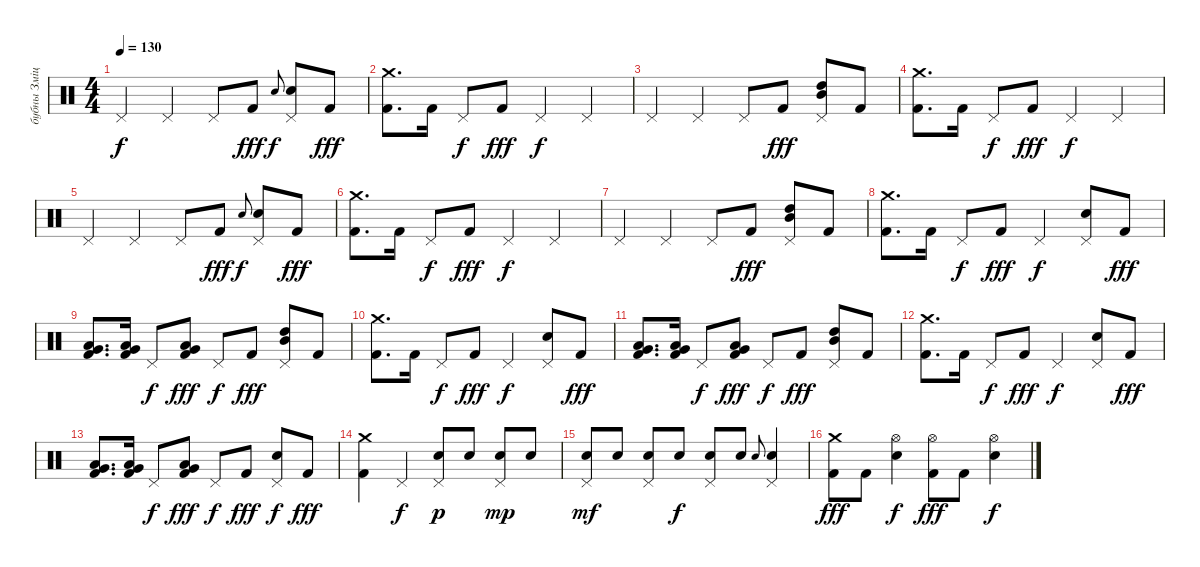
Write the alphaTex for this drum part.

\track ("бубны Змiцер" "бубны Змiц") {instrument percussion}
\staff {score}
\articulation defaults
\ts (4 4)
\tempo 130
\clef neutral
\ks c "Pedal Hi-Hat (hit)".4{dy f} "Pedal Hi-Hat (hit)".4 "Pedal Hi-Hat (hit)".8 "Kick (hit) 2".8{dy fff} "Electric Snare (hit)".8{gr onbeat dy f}
("Electric Snare (hit)" "Pedal Hi-Hat (hit)").8 "Kick (hit) 2".8{dy fff} |
("Crash medium (hit)" "Kick (hit) 2").8{d} "Kick (hit) 2".16 "Pedal Hi-Hat (hit)".8{dy f} "Kick (hit) 2".8{dy fff} "Pedal Hi-Hat (hit)".4{dy f} "Pedal Hi-Hat (hit)".4 |
"Pedal Hi-Hat (hit)".4 "Pedal Hi-Hat (hit)".4 "Pedal Hi-Hat (hit)".8 "Kick (hit) 2".8{dy fff} ("Mid Tom (hit)" "High Tom (hit)" "Pedal Hi-Hat (hit)").8 "Kick (hit) 2".8 |
("Crash medium (hit)" "Kick (hit) 2").8{d} "Kick (hit) 2".16 "Pedal Hi-Hat (hit)".8{dy f} "Kick (hit) 2".8{dy fff} "Pedal Hi-Hat (hit)".4{dy f} "Pedal Hi-Hat (hit)".4 |
"Pedal Hi-Hat (hit)".4 "Pedal Hi-Hat (hit)".4 "Pedal Hi-Hat (hit)".8 "Kick (hit) 2".8{dy fff} "Electric Snare (hit)".8{gr onbeat dy f} ("Electric Snare (hit)" "Pedal Hi-Hat (hit)").8 "Kick (hit) 2".8{dy fff} |
("Crash medium (hit)" "Kick (hit) 2").8{d} "Kick (hit) 2".16 "Pedal Hi-Hat (hit)".8{dy f} "Kick (hit) 2".8{dy fff} "Pedal Hi-Hat (hit)".4{dy f} "Pedal Hi-Hat (hit)".4 |
"Pedal Hi-Hat (hit)".4 "Pedal Hi-Hat (hit)".4 "Pedal Hi-Hat (hit)".8 "Kick (hit) 2".8{dy fff} ("Mid Tom (hit)" "High Tom (hit)" "Pedal Hi-Hat (hit)").8 "Kick (hit) 2".8 |
("Crash medium (hit)" "Kick (hit) 2").8{d} "Kick (hit) 2".16 "Pedal Hi-Hat (hit)".8{dy f} "Kick (hit) 2".8{dy fff} "Pedal Hi-Hat (hit)".4{dy f} ("Electric Snare (hit)" "Pedal Hi-Hat (hit)").8 "Kick (hit) 2".8{dy fff} |
("Very Low Tom (hit)" "Low Tom (hit)" "Kick (hit) 2").8{d} ("Very Low Tom (hit)" "Low Tom (hit)" "Kick (hit) 2").16 "Pedal Hi-Hat (hit)".8{dy f} ("Very Low Tom (hit)" "Low Tom (hit)" "Kick (hit) 2").8{dy fff} "Pedal Hi-Hat (hit)".8{dy f} "Kick (hit) 2".8{dy fff} ("Mid Tom (hit)" "High Tom (hit)" "Pedal Hi-Hat (hit)").8 "Kick (hit) 2".8 |
("Crash medium (hit)" "Kick (hit) 2").8{d} "Kick (hit) 2".16 "Pedal Hi-Hat (hit)".8{dy f} "Kick (hit) 2".8{dy fff} "Pedal Hi-Hat (hit)".4{dy f} ("Electric Snare (hit)" "Pedal Hi-Hat (hit)").8 "Kick (hit) 2".8{dy fff} |
("Very Low Tom (hit)" "Low Tom (hit)" "Kick (hit) 2").8{d} ("Very Low Tom (hit)" "Low Tom (hit)" "Kick (hit) 2").16 "Pedal Hi-Hat (hit)".8{dy f} ("Very Low Tom (hit)" "Low Tom (hit)" "Kick (hit) 2").8{dy fff} "Pedal Hi-Hat (hit)".8{dy f} "Kick (hit) 2".8{dy fff} ("Mid Tom (hit)" "High Tom (hit)" "Pedal Hi-Hat (hit)").8 "Kick (hit) 2".8 |
("Crash medium (hit)" "Kick (hit) 2").8{d} "Kick (hit) 2".16 "Pedal Hi-Hat (hit)".8{dy f} "Kick (hit) 2".8{dy fff} "Pedal Hi-Hat (hit)".4{dy f} ("Electric Snare (hit)" "Pedal Hi-Hat (hit)").8 "Kick (hit) 2".8{dy fff} |
("Very Low Tom (hit)" "Low Tom (hit)" "Kick (hit) 2").8{d} ("Very Low Tom (hit)" "Low Tom (hit)" "Kick (hit) 2").16 "Pedal Hi-Hat (hit)".8{dy f} ("Very Low Tom (hit)" "Low Tom (hit)" "Kick (hit) 2").8{dy fff} "Pedal Hi-Hat (hit)".8{dy f} "Kick (hit) 2".8{dy fff} ("Electric Snare (hit)" "Pedal Hi-Hat (hit)").8{dy f} "Kick (hit) 2".8{dy fff} |
("Crash medium (hit)" "Kick (hit) 2").4 "Pedal Hi-Hat (hit)".4{dy f} ("Electric Snare (hit)" "Pedal Hi-Hat (hit)").8{dy p} "Electric Snare (hit)".8 ("Electric Snare (hit)" "Pedal Hi-Hat (hit)").8{dy mp} "Electric Snare (hit)".8 |
("Electric Snare (hit)" "Pedal Hi-Hat (hit)").8{dy mf} "Electric Snare (hit)".8 ("Electric Snare (hit)" "Pedal Hi-Hat (hit)").8 "Electric Snare (hit)".8{dy f} ("Electric Snare (hit)" "Pedal Hi-Hat (hit)").8 "Electric Snare (hit)".8 "Electric Snare (hit)".8{gr onbeat} ("Electric Snare (hit)" "Pedal Hi-Hat (hit)").4 |
("Crash medium (hit)" "Kick (hit) 2").8{dy fff} "Kick (hit) 2".8 ("Hi-Hat (open)" "Electric Snare (hit)").4{dy f} ("Hi-Hat (open)" "Kick (hit) 2").8{dy fff} "Kick (hit) 2".8 ("Hi-Hat (open)" "Electric Snare (hit)").4{dy f}
